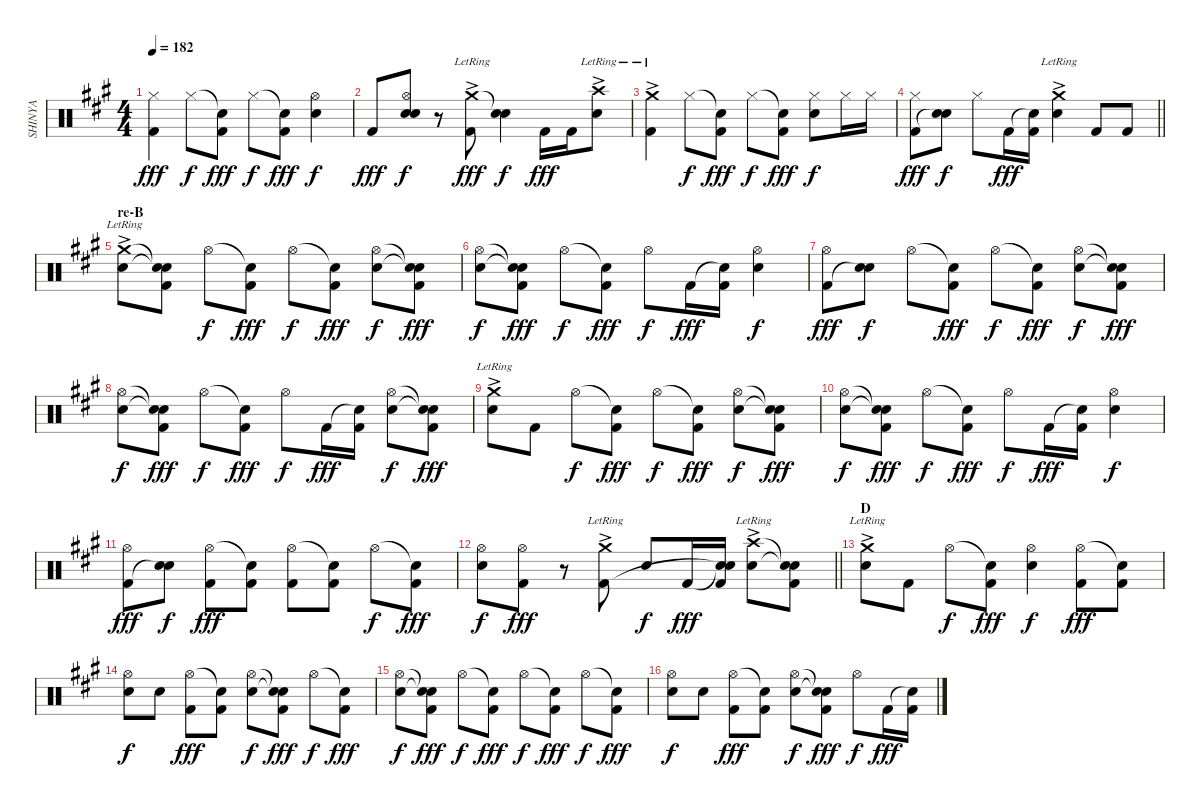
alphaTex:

\track ("SHINYA" "SHINYA") {instrument percussion}
\staff {score}
\articulation defaults
\ts (4 4)
\tempo 182
\clef neutral
\ks a
("Hi-Hat (closed)" "Kick (hit) 2").4{dy fff} "Hi-Hat (closed)".8{dy f} ("Snare (hit)"{t} "Kick (hit) 2").8{dy fff} "Hi-Hat (closed)".8{dy f} ("Snare (hit)"{t} "Kick (hit) 2").8{dy fff} ("Hi-Hat (open)" "Electric Snare (hit)").4{dy f} |
"Kick (hit) 2".8{dy fff} ("Hi-Hat (open)" "Electric Snare (hit)" "Snare (hit)"{t}).8{dy f} r.8 ("Crash medium (hit)"{ac lr} "Kick (hit) 2").8{dy fff} ("Snare (hit)"{t} "Electric Snare (hit)").4{dy f} "Kick (hit) 2".16{dy fff} "Kick (hit) 2".16 ("Crash high (hit)"{ac lr} "Electric Snare (hit)").8 |
("Crash medium (hit)"{ac lr} "Kick (hit) 2").4 "Hi-Hat (closed)".8{dy f} ("Snare (hit)"{t} "Kick (hit) 2").8{dy fff} "Hi-Hat (closed)".8{dy f} ("Snare (hit)"{t} "Kick (hit) 2").8{dy fff} ("Hi-Hat (closed)" "Electric Snare (hit)").8{dy f} "Hi-Hat (closed)".16 "Hi-Hat (closed)".16 |
\barLineRight lightlight
("Hi-Hat (closed)" "Kick (hit) 2").8{dy fff} ("Electric Snare (hit)" "Snare (hit)"{t}).8{dy f} "Hi-Hat (closed)".8 "Kick (hit) 2".16{dy fff} ("Snare (hit)"{t} "Kick (hit) 2").16 ("Crash medium (hit)"{ac lr} "Electric Snare (hit)").4 "Kick (hit) 2".8 "Kick (hit) 2".8 |
\section ("" "re-B")
("Crash medium (hit)"{ac lr} "Electric Snare (hit)").8 ("Snare (hit)"{t} "Snare (hit)"{t} "Kick (hit) 2").8 "Hi-Hat (open)".8{dy f} ("Snare (hit)"{t} "Kick (hit) 2").8{dy fff} "Hi-Hat (open)".8{dy f} ("Snare (hit)"{t} "Kick (hit) 2").8{dy fff} ("Hi-Hat (open)" "Electric Snare (hit)").8{dy f} ("Snare (hit)"{t} "Snare (hit)"{t} "Kick (hit) 2").8{dy fff} |
("Hi-Hat (open)" "Electric Snare (hit)").8{dy f} ("Snare (hit)"{t} "Snare (hit)"{t} "Kick (hit) 2").8{dy fff} "Hi-Hat (open)".8{dy f} ("Snare (hit)"{t} "Kick (hit) 2").8{dy fff} "Hi-Hat (open)".8{dy f} "Kick (hit) 2".16{dy fff} ("Snare (hit)"{t} "Kick (hit) 2").16 ("Hi-Hat (open)" "Electric Snare (hit)").4{dy f} |
("Hi-Hat (open)" "Kick (hit) 2").8{dy fff} ("Electric Snare (hit)" "Snare (hit)"{t}).8{dy f} "Hi-Hat (open)".8 ("Snare (hit)"{t} "Kick (hit) 2").8{dy fff} "Hi-Hat (open)".8{dy f} ("Snare (hit)"{t} "Kick (hit) 2").8{dy fff} ("Hi-Hat (open)" "Electric Snare (hit)").8{dy f} ("Snare (hit)"{t} "Snare (hit)"{t} "Kick (hit) 2").8{dy fff} |
("Hi-Hat (open)" "Electric Snare (hit)").8{dy f} ("Snare (hit)"{t} "Snare (hit)"{t} "Kick (hit) 2").8{dy fff} "Hi-Hat (open)".8{dy f} ("Snare (hit)"{t} "Kick (hit) 2").8{dy fff} "Hi-Hat (open)".8{dy f} "Kick (hit) 2".16{dy fff} ("Snare (hit)"{t} "Kick (hit) 2").16 ("Hi-Hat (open)" "Electric Snare (hit)").8{dy f} ("Snare (hit)"{t} "Snare (hit)"{t} "Kick (hit) 2").8{dy fff} |
("Crash medium (hit)"{ac lr} "Electric Snare (hit)").8 "Kick (hit) 2".8 "Hi-Hat (open)".8{dy f} ("Snare (hit)"{t} "Kick (hit) 2").8{dy fff} "Hi-Hat (open)".8{dy f} ("Snare (hit)"{t} "Kick (hit) 2").8{dy fff} ("Hi-Hat (open)" "Electric Snare (hit)").8{dy f} ("Snare (hit)"{t} "Snare (hit)"{t} "Kick (hit) 2").8{dy fff} |
("Hi-Hat (open)" "Electric Snare (hit)").8{dy f} ("Snare (hit)"{t} "Snare (hit)"{t} "Kick (hit) 2").8{dy fff} "Hi-Hat (open)".8{dy f} ("Snare (hit)"{t} "Kick (hit) 2").8{dy fff} "Hi-Hat (open)".8{dy f} "Kick (hit) 2".16{dy fff} ("Snare (hit)"{t} "Kick (hit) 2").16 ("Hi-Hat (open)" "Electric Snare (hit)").4{dy f} |
("Hi-Hat (open)" "Kick (hit) 2").8{dy fff} ("Electric Snare (hit)" "Snare (hit)"{t}).8{dy f} ("Hi-Hat (open)" "Kick (hit) 2").8{dy fff} ("Snare (hit)"{t} "Kick (hit) 2").8 ("Hi-Hat (open)" "Kick (hit) 2").8 ("Snare (hit)"{t} "Kick (hit) 2").8 "Hi-Hat (open)".8{dy f} ("Snare (hit)"{t} "Kick (hit) 2").8{dy fff} |
\barLineRight lightlight
("Hi-Hat (open)" "Electric Snare (hit)").8{dy f} ("Hi-Hat (open)" "Kick (hit) 2").8{dy fff} r.8 ("Crash medium (hit)"{ac lr} "Kick (hit) 2").8 "Electric Snare (hit)".8{dy f} "Kick (hit) 2".16{dy fff} ("Snare (hit)"{t} "Snare (hit)"{t} "Kick (hit) 2").16 ("Crash high (hit)"{ac lr} "Electric Snare (hit)").8 ("Snare (hit)"{t} "Snare (hit)"{t} "Kick (hit) 2").8 |
\section ("" "D")
("Crash medium (hit)"{ac lr} "Electric Snare (hit)").8 "Kick (hit) 2".8 "Hi-Hat (open)".8{dy f} ("Snare (hit)"{t} "Kick (hit) 2").8{dy fff} ("Hi-Hat (open)" "Electric Snare (hit)").4{dy f} ("Hi-Hat (open)" "Kick (hit) 2").8{dy fff} ("Snare (hit)"{t} "Kick (hit) 2").8 |
("Hi-Hat (open)" "Electric Snare (hit)").8{dy f} "Electric Snare (hit)".8 ("Hi-Hat (open)" "Kick (hit) 2").8{dy fff} ("Snare (hit)"{t} "Kick (hit) 2").8 ("Hi-Hat (open)" "Electric Snare (hit)").8{dy f} ("Snare (hit)"{t} "Snare (hit)"{t} "Kick (hit) 2").8{dy fff} "Hi-Hat (open)".8{dy f} ("Snare (hit)"{t} "Kick (hit) 2").8{dy fff} |
("Hi-Hat (open)" "Electric Snare (hit)").8{dy f} ("Snare (hit)"{t} "Snare (hit)"{t} "Kick (hit) 2").8{dy fff} "Hi-Hat (open)".8{dy f} ("Snare (hit)"{t} "Kick (hit) 2").8{dy fff} "Hi-Hat (open)".8{dy f} ("Snare (hit)"{t} "Kick (hit) 2").8{dy fff} "Hi-Hat (open)".8{dy f} ("Snare (hit)"{t} "Kick (hit) 2").8{dy fff} |
("Hi-Hat (open)" "Electric Snare (hit)").8{dy f} "Electric Snare (hit)".8 ("Hi-Hat (open)" "Kick (hit) 2").8{dy fff} ("Snare (hit)"{t} "Kick (hit) 2").8 ("Hi-Hat (open)" "Electric Snare (hit)").8{dy f} ("Snare (hit)"{t} "Snare (hit)"{t} "Kick (hit) 2").8{dy fff} "Hi-Hat (open)".8{dy f} "Kick (hit) 2".16{dy fff} ("Snare (hit)"{t} "Kick (hit) 2").16
